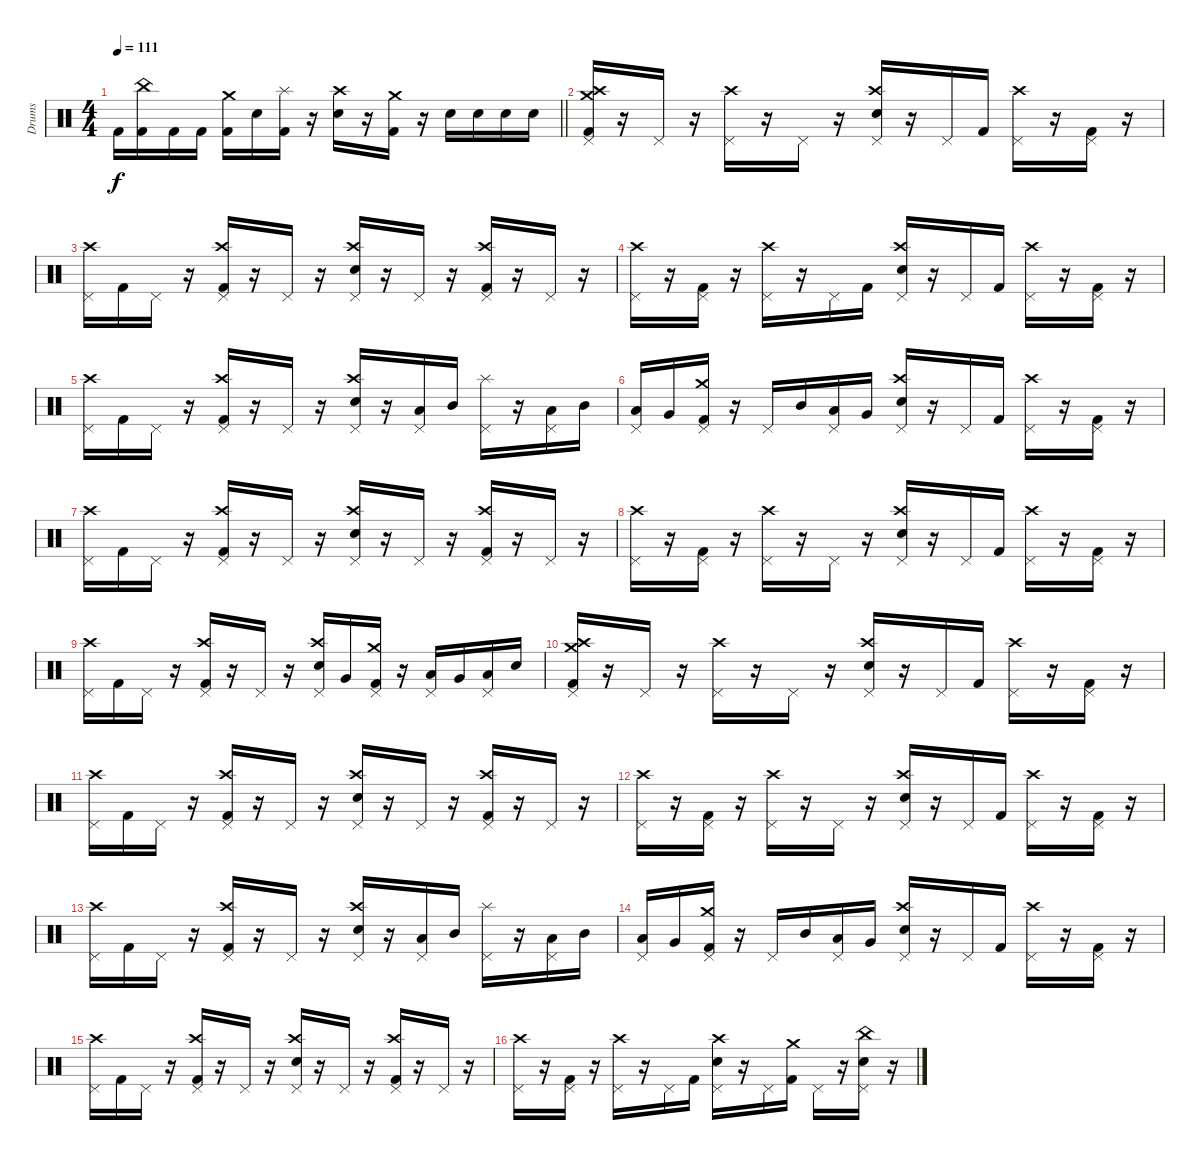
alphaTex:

\track ("Drums" "Drums") {instrument percussion}
\staff {score}
\articulation defaults
\ts (4 4)
\tempo 111
\clef neutral
\barLineRight lightlight
\ks c "Kick (hit) 2".16{dy f}
("China (hit)" "Kick (hit) 2").16 "Kick (hit) 2".16 "Kick (hit) 2".16 ("Crash medium (hit)" "Kick (hit) 2").16 "Electric Snare (hit)".16 ("Splash (hit)" "Kick (hit) 2").16 r.16 ("Crash high (hit)" "Electric Snare (hit)").16 r.16 ("Crash medium (hit)" "Kick (hit) 2").16 r.16 "Electric Snare (hit)".16 "Electric Snare (hit)".16 "Electric Snare (hit)".16 "Electric Snare (hit)".16 |
\section ("" "")
("Crash high (hit)" "Crash medium (hit)" "Pedal Hi-Hat (hit)" "Kick (hit) 2").16 r.16 "Pedal Hi-Hat (hit)".16 r.16 ("Crash high (hit)" "Pedal Hi-Hat (hit)").16 r.16 "Pedal Hi-Hat (hit)".16 r.16 ("Crash high (hit)" "Pedal Hi-Hat (hit)" "Electric Snare (hit)").16 r.16 "Pedal Hi-Hat (hit)".16 "Kick (hit) 2".16 ("Crash high (hit)" "Pedal Hi-Hat (hit)").16 r.16 ("Pedal Hi-Hat (hit)" "Kick (hit) 2").16 r.16 |
("Crash high (hit)" "Pedal Hi-Hat (hit)").16 "Kick (hit) 2".16 "Pedal Hi-Hat (hit)".16 r.16 ("Crash high (hit)" "Pedal Hi-Hat (hit)" "Kick (hit) 2").16 r.16 "Pedal Hi-Hat (hit)".16 r.16 ("Crash high (hit)" "Pedal Hi-Hat (hit)" "Electric Snare (hit)").16 r.16 "Pedal Hi-Hat (hit)".16 r.16 ("Crash high (hit)" "Pedal Hi-Hat (hit)" "Kick (hit) 2").16 r.16 "Pedal Hi-Hat (hit)".16 r.16 |
("Crash high (hit)" "Pedal Hi-Hat (hit)").16 r.16 ("Pedal Hi-Hat (hit)" "Kick (hit) 2").16 r.16 ("Crash high (hit)" "Pedal Hi-Hat (hit)").16 r.16 "Pedal Hi-Hat (hit)".16 "Kick (hit) 2".16 ("Crash high (hit)" "Pedal Hi-Hat (hit)" "Electric Snare (hit)").16 r.16 "Pedal Hi-Hat (hit)".16 "Kick (hit) 2".16 ("Crash high (hit)" "Pedal Hi-Hat (hit)").16 r.16 ("Pedal Hi-Hat (hit)" "Kick (hit) 2").16 r.16 |
("Crash high (hit)" "Pedal Hi-Hat (hit)").16 "Kick (hit) 2".16 "Pedal Hi-Hat (hit)".16 r.16 ("Crash high (hit)" "Pedal Hi-Hat (hit)" "Kick (hit) 2").16 r.16 "Pedal Hi-Hat (hit)".16 r.16 ("Crash high (hit)" "Pedal Hi-Hat (hit)" "Electric Snare (hit)").16 r.16 ("Pedal Hi-Hat (hit)" "Low Tom (hit)").16 "Mid Tom (hit)".16 ("Splash (hit)" "Pedal Hi-Hat (hit)").16 r.16 ("Pedal Hi-Hat (hit)" "Low Tom (hit)").16 "Mid Tom (hit)".16 |
("Pedal Hi-Hat (hit)" "Low Tom (hit)").16 "Very Low Tom (hit)".16 ("Crash medium (hit)" "Pedal Hi-Hat (hit)" "Kick (hit) 2").16 r.16 "Pedal Hi-Hat (hit)".16 "Mid Tom (hit)".16 ("Pedal Hi-Hat (hit)" "Low Tom (hit)").16 "Very Low Tom (hit)".16 ("Crash high (hit)" "Pedal Hi-Hat (hit)" "Electric Snare (hit)").16 r.16 "Pedal Hi-Hat (hit)".16 "Kick (hit) 2".16 ("Crash high (hit)" "Pedal Hi-Hat (hit)").16 r.16 ("Pedal Hi-Hat (hit)" "Kick (hit) 2").16 r.16 |
("Crash high (hit)" "Pedal Hi-Hat (hit)").16 "Kick (hit) 2".16 "Pedal Hi-Hat (hit)".16 r.16 ("Crash high (hit)" "Pedal Hi-Hat (hit)" "Kick (hit) 2").16 r.16 "Pedal Hi-Hat (hit)".16 r.16 ("Crash high (hit)" "Pedal Hi-Hat (hit)" "Electric Snare (hit)").16 r.16 "Pedal Hi-Hat (hit)".16 r.16 ("Crash high (hit)" "Pedal Hi-Hat (hit)" "Kick (hit) 2").16 r.16 "Pedal Hi-Hat (hit)".16 r.16 |
("Crash high (hit)" "Pedal Hi-Hat (hit)").16 r.16 ("Pedal Hi-Hat (hit)" "Kick (hit) 2").16 r.16 ("Crash high (hit)" "Pedal Hi-Hat (hit)").16 r.16 "Pedal Hi-Hat (hit)".16 r.16 ("Crash high (hit)" "Pedal Hi-Hat (hit)" "Electric Snare (hit)").16 r.16 "Pedal Hi-Hat (hit)".16 "Kick (hit) 2".16 ("Crash high (hit)" "Pedal Hi-Hat (hit)").16 r.16 ("Pedal Hi-Hat (hit)" "Kick (hit) 2").16 r.16 |
("Crash high (hit)" "Pedal Hi-Hat (hit)").16 "Kick (hit) 2".16 "Pedal Hi-Hat (hit)".16 r.16 ("Crash high (hit)" "Pedal Hi-Hat (hit)" "Kick (hit) 2").16 r.16 "Pedal Hi-Hat (hit)".16 r.16 ("Crash high (hit)" "Pedal Hi-Hat (hit)" "Electric Snare (hit)").16 "Very Low Tom (hit)".16 ("Crash medium (hit)" "Pedal Hi-Hat (hit)" "Kick (hit) 2").16 r.16 ("Pedal Hi-Hat (hit)" "Low Floor Tom (hit)").16 "Very Low Tom (hit)".16 ("Pedal Hi-Hat (hit)" "Low Tom (hit)").16 "Electric Snare (hit)".16 |
("Crash high (hit)" "Crash medium (hit)" "Pedal Hi-Hat (hit)" "Kick (hit) 2").16 r.16 "Pedal Hi-Hat (hit)".16 r.16 ("Crash high (hit)" "Pedal Hi-Hat (hit)").16 r.16 "Pedal Hi-Hat (hit)".16 r.16 ("Crash high (hit)" "Pedal Hi-Hat (hit)" "Electric Snare (hit)").16 r.16 "Pedal Hi-Hat (hit)".16 "Kick (hit) 2".16 ("Crash high (hit)" "Pedal Hi-Hat (hit)").16 r.16 ("Pedal Hi-Hat (hit)" "Kick (hit) 2").16 r.16 |
("Crash high (hit)" "Pedal Hi-Hat (hit)").16 "Kick (hit) 2".16 "Pedal Hi-Hat (hit)".16 r.16 ("Crash high (hit)" "Pedal Hi-Hat (hit)" "Kick (hit) 2").16 r.16 "Pedal Hi-Hat (hit)".16 r.16 ("Crash high (hit)" "Pedal Hi-Hat (hit)" "Electric Snare (hit)").16 r.16 "Pedal Hi-Hat (hit)".16 r.16 ("Crash high (hit)" "Pedal Hi-Hat (hit)" "Kick (hit) 2").16 r.16 "Pedal Hi-Hat (hit)".16 r.16 |
("Crash high (hit)" "Pedal Hi-Hat (hit)").16 r.16 ("Pedal Hi-Hat (hit)" "Kick (hit) 2").16 r.16 ("Crash high (hit)" "Pedal Hi-Hat (hit)").16 r.16 "Pedal Hi-Hat (hit)".16 r.16 ("Crash high (hit)" "Pedal Hi-Hat (hit)" "Electric Snare (hit)").16 r.16 "Pedal Hi-Hat (hit)".16 "Kick (hit) 2".16 ("Crash high (hit)" "Pedal Hi-Hat (hit)").16 r.16 ("Pedal Hi-Hat (hit)" "Kick (hit) 2").16 r.16 |
("Crash high (hit)" "Pedal Hi-Hat (hit)").16 "Kick (hit) 2".16 "Pedal Hi-Hat (hit)".16 r.16 ("Crash high (hit)" "Pedal Hi-Hat (hit)" "Kick (hit) 2").16 r.16 "Pedal Hi-Hat (hit)".16 r.16 ("Crash high (hit)" "Pedal Hi-Hat (hit)" "Electric Snare (hit)").16 r.16 ("Pedal Hi-Hat (hit)" "Low Tom (hit)").16 "Mid Tom (hit)".16 ("Splash (hit)" "Pedal Hi-Hat (hit)").16 r.16 ("Pedal Hi-Hat (hit)" "Low Tom (hit)").16 "Mid Tom (hit)".16 |
("Pedal Hi-Hat (hit)" "Low Tom (hit)").16 "Very Low Tom (hit)".16 ("Crash medium (hit)" "Pedal Hi-Hat (hit)" "Kick (hit) 2").16 r.16 "Pedal Hi-Hat (hit)".16 "Mid Tom (hit)".16 ("Pedal Hi-Hat (hit)" "Low Tom (hit)").16 "Very Low Tom (hit)".16 ("Crash high (hit)" "Pedal Hi-Hat (hit)" "Electric Snare (hit)").16 r.16 "Pedal Hi-Hat (hit)".16 "Kick (hit) 2".16 ("Crash high (hit)" "Pedal Hi-Hat (hit)").16 r.16 ("Pedal Hi-Hat (hit)" "Kick (hit) 2").16 r.16 |
("Crash high (hit)" "Pedal Hi-Hat (hit)").16 "Kick (hit) 2".16 "Pedal Hi-Hat (hit)".16 r.16 ("Crash high (hit)" "Pedal Hi-Hat (hit)" "Kick (hit) 2").16 r.16 "Pedal Hi-Hat (hit)".16 r.16 ("Crash high (hit)" "Pedal Hi-Hat (hit)" "Electric Snare (hit)").16 r.16 "Pedal Hi-Hat (hit)".16 r.16 ("Crash high (hit)" "Pedal Hi-Hat (hit)" "Kick (hit) 2").16 r.16 "Pedal Hi-Hat (hit)".16 r.16 |
("Crash high (hit)" "Pedal Hi-Hat (hit)").16 r.16 ("Pedal Hi-Hat (hit)" "Kick (hit) 2").16 r.16 ("Crash high (hit)" "Pedal Hi-Hat (hit)").16 r.16 "Pedal Hi-Hat (hit)".16 "Kick (hit) 2".16 ("Crash high (hit)" "Pedal Hi-Hat (hit)" "Electric Snare (hit)").16 r.16 "Pedal Hi-Hat (hit)".16 ("Crash medium (hit)" "Kick (hit) 2").16 "Pedal Hi-Hat (hit)".16 r.16 ("China (hit)" "Pedal Hi-Hat (hit)" "Electric Snare (hit)").16 r.16
